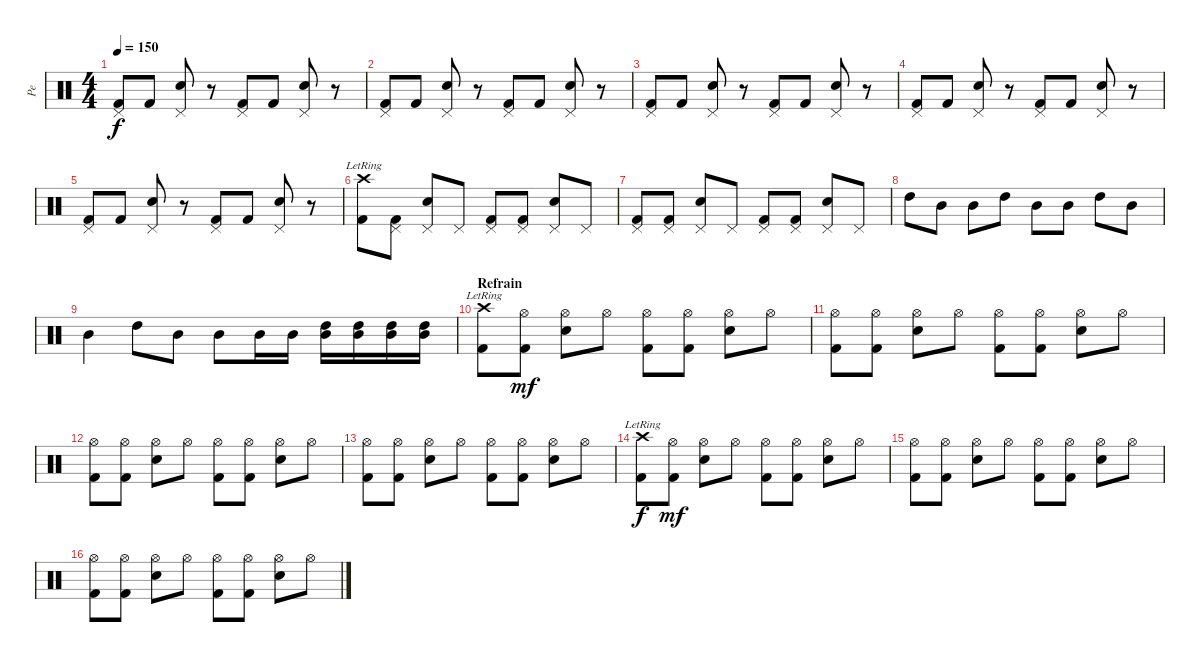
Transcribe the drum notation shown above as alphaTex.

\track ("Pe" "Pe") {instrument percussion}
\staff {score}
\articulation defaults
\ts (4 4)
\tempo 150
\clef neutral
\ks c
("Pedal Hi-Hat (hit)" "Kick (hit) 2").8{dy f} "Kick (hit) 2".8 ("Pedal Hi-Hat (hit)" "Snare (hit) 2").8 r.8 ("Pedal Hi-Hat (hit)" "Kick (hit) 2").8 "Kick (hit) 2".8 ("Pedal Hi-Hat (hit)" "Snare (hit) 2").8 r.8 |
("Pedal Hi-Hat (hit)" "Kick (hit) 2").8 "Kick (hit) 2".8 ("Pedal Hi-Hat (hit)" "Snare (hit) 2").8 r.8 ("Pedal Hi-Hat (hit)" "Kick (hit) 2").8 "Kick (hit) 2".8 ("Pedal Hi-Hat (hit)" "Snare (hit) 2").8 r.8 |
("Pedal Hi-Hat (hit)" "Kick (hit) 2").8 "Kick (hit) 2".8 ("Pedal Hi-Hat (hit)" "Snare (hit) 2").8 r.8 ("Pedal Hi-Hat (hit)" "Kick (hit) 2").8 "Kick (hit) 2".8 ("Pedal Hi-Hat (hit)" "Snare (hit) 2").8 r.8 |
("Pedal Hi-Hat (hit)" "Kick (hit) 2").8 "Kick (hit) 2".8 ("Pedal Hi-Hat (hit)" "Snare (hit) 2").8 r.8 ("Pedal Hi-Hat (hit)" "Kick (hit) 2").8 "Kick (hit) 2".8 ("Pedal Hi-Hat (hit)" "Snare (hit) 2").8 r.8 |
("Pedal Hi-Hat (hit)" "Kick (hit) 2").8 "Kick (hit) 2".8 ("Pedal Hi-Hat (hit)" "Snare (hit) 2").8 r.8 ("Pedal Hi-Hat (hit)" "Kick (hit) 2").8 "Kick (hit) 2".8 ("Pedal Hi-Hat (hit)" "Snare (hit) 2").8 r.8 |
("Crash high (hit)"{lr} "Kick (hit) 2").8 ("Pedal Hi-Hat (hit)" "Kick (hit) 2").8 ("Pedal Hi-Hat (hit)" "Snare (hit) 2").8 "Pedal Hi-Hat (hit)".8 ("Pedal Hi-Hat (hit)" "Kick (hit) 2").8 ("Pedal Hi-Hat (hit)" "Kick (hit) 2").8 ("Pedal Hi-Hat (hit)" "Snare (hit) 2").8 "Pedal Hi-Hat (hit)".8 |
("Pedal Hi-Hat (hit)" "Kick (hit) 2").8 ("Pedal Hi-Hat (hit)" "Kick (hit) 2").8 ("Pedal Hi-Hat (hit)" "Snare (hit) 2").8 "Pedal Hi-Hat (hit)".8 ("Pedal Hi-Hat (hit)" "Kick (hit) 2").8 ("Pedal Hi-Hat (hit)" "Kick (hit) 2").8 ("Pedal Hi-Hat (hit)" "Snare (hit) 2").8 "Pedal Hi-Hat (hit)".8 |
"High Tom (hit)".8 "Mid Tom (hit)".8 "Mid Tom (hit)".8 "High Tom (hit)".8 "Mid Tom (hit)".8 "Mid Tom (hit)".8 "High Tom (hit)".8 "Mid Tom (hit)".8 |
"Mid Tom (hit)".4 "High Tom (hit)".8 "Mid Tom (hit)".8 "Mid Tom (hit)".8 "Mid Tom (hit)".16 "Mid Tom (hit)".16 ("Mid Tom (hit)" "High Tom (hit)").16 ("Mid Tom (hit)" "High Tom (hit)").16 ("Mid Tom (hit)" "High Tom (hit)").16 ("Mid Tom (hit)" "High Tom (hit)").16 |
\section ("" "Refrain")
("Crash high (hit)"{lr} "Kick (hit) 2").8 ("Hi-Hat (open)" "Kick (hit) 2").8{dy mf} ("Hi-Hat (open)" "Snare (hit) 2").8 "Hi-Hat (open)".8 ("Hi-Hat (open)" "Kick (hit) 2").8 ("Hi-Hat (open)" "Kick (hit) 2").8 ("Hi-Hat (open)" "Snare (hit) 2").8 "Hi-Hat (open)".8 |
("Hi-Hat (open)" "Kick (hit) 2").8 ("Hi-Hat (open)" "Kick (hit) 2").8 ("Hi-Hat (open)" "Snare (hit) 2").8 "Hi-Hat (open)".8 ("Hi-Hat (open)" "Kick (hit) 2").8 ("Hi-Hat (open)" "Kick (hit) 2").8 ("Hi-Hat (open)" "Snare (hit) 2").8 "Hi-Hat (open)".8 |
("Hi-Hat (open)" "Kick (hit) 2").8 ("Hi-Hat (open)" "Kick (hit) 2").8 ("Hi-Hat (open)" "Snare (hit) 2").8 "Hi-Hat (open)".8 ("Hi-Hat (open)" "Kick (hit) 2").8 ("Hi-Hat (open)" "Kick (hit) 2").8 ("Hi-Hat (open)" "Snare (hit) 2").8 "Hi-Hat (open)".8 |
("Hi-Hat (open)" "Kick (hit) 2").8 ("Hi-Hat (open)" "Kick (hit) 2").8 ("Hi-Hat (open)" "Snare (hit) 2").8 "Hi-Hat (open)".8 ("Hi-Hat (open)" "Kick (hit) 2").8 ("Hi-Hat (open)" "Kick (hit) 2").8 ("Hi-Hat (open)" "Snare (hit) 2").8 "Hi-Hat (open)".8 |
("Crash high (hit)"{lr} "Kick (hit) 2").8{dy f} ("Hi-Hat (open)" "Kick (hit) 2").8{dy mf} ("Hi-Hat (open)" "Snare (hit) 2").8 "Hi-Hat (open)".8 ("Hi-Hat (open)" "Kick (hit) 2").8 ("Hi-Hat (open)" "Kick (hit) 2").8 ("Hi-Hat (open)" "Snare (hit) 2").8 "Hi-Hat (open)".8 |
("Hi-Hat (open)" "Kick (hit) 2").8 ("Hi-Hat (open)" "Kick (hit) 2").8 ("Hi-Hat (open)" "Snare (hit) 2").8 "Hi-Hat (open)".8 ("Hi-Hat (open)" "Kick (hit) 2").8 ("Hi-Hat (open)" "Kick (hit) 2").8 ("Hi-Hat (open)" "Snare (hit) 2").8 "Hi-Hat (open)".8 |
("Hi-Hat (open)" "Kick (hit) 2").8 ("Hi-Hat (open)" "Kick (hit) 2").8 ("Hi-Hat (open)" "Snare (hit) 2").8 "Hi-Hat (open)".8 ("Hi-Hat (open)" "Kick (hit) 2").8 ("Hi-Hat (open)" "Kick (hit) 2").8 ("Hi-Hat (open)" "Snare (hit) 2").8 "Hi-Hat (open)".8
